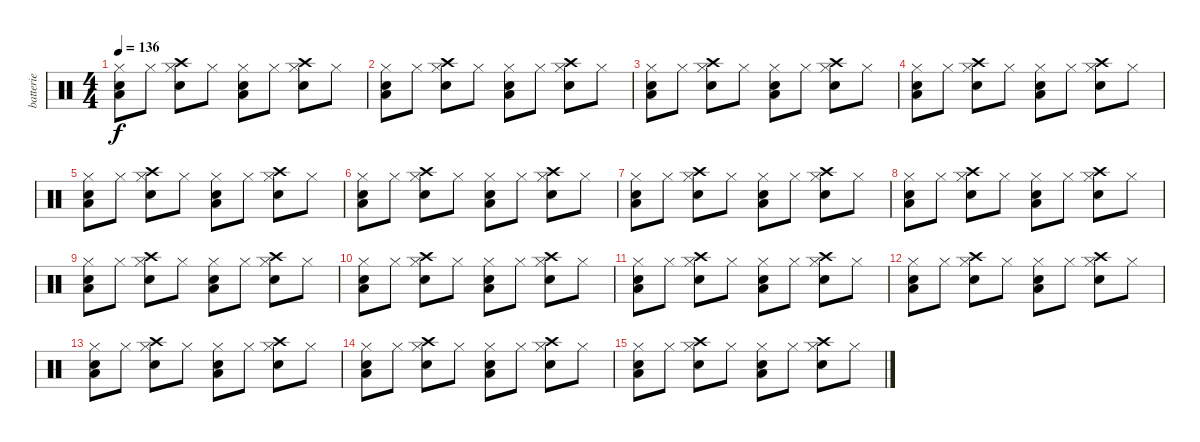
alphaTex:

\track ("batterie" "batterie") {instrument percussion}
\staff {score}
\articulation defaults
\ts (4 4)
\tempo 136
\clef neutral
\ks c
("Hi-Hat (closed)" "Snare (hit) 2" "Low Floor Tom (hit)").8{dy f} "Hi-Hat (closed)".8 ("Hi-Hat (closed)" "Crash high (hit)" "Electric Snare (hit)").8 "Hi-Hat (closed)".8 ("Hi-Hat (closed)" "Snare (hit) 2" "Low Floor Tom (hit)").8 "Hi-Hat (closed)".8 ("Hi-Hat (closed)" "Crash high (hit)" "Electric Snare (hit)").8 "Hi-Hat (closed)".8 |
("Hi-Hat (closed)" "Snare (hit) 2" "Low Floor Tom (hit)").8 "Hi-Hat (closed)".8 ("Hi-Hat (closed)" "Crash high (hit)" "Electric Snare (hit)").8 "Hi-Hat (closed)".8 ("Hi-Hat (closed)" "Snare (hit) 2" "Low Floor Tom (hit)").8 "Hi-Hat (closed)".8 ("Hi-Hat (closed)" "Crash high (hit)" "Electric Snare (hit)").8 "Hi-Hat (closed)".8 |
("Hi-Hat (closed)" "Snare (hit) 2" "Low Floor Tom (hit)").8 "Hi-Hat (closed)".8 ("Hi-Hat (closed)" "Crash high (hit)" "Electric Snare (hit)").8 "Hi-Hat (closed)".8 ("Hi-Hat (closed)" "Snare (hit) 2" "Low Floor Tom (hit)").8 "Hi-Hat (closed)".8 ("Hi-Hat (closed)" "Crash high (hit)" "Electric Snare (hit)").8 "Hi-Hat (closed)".8 |
("Hi-Hat (closed)" "Snare (hit) 2" "Low Floor Tom (hit)").8 "Hi-Hat (closed)".8 ("Hi-Hat (closed)" "Crash high (hit)" "Electric Snare (hit)").8 "Hi-Hat (closed)".8 ("Hi-Hat (closed)" "Snare (hit) 2" "Low Floor Tom (hit)").8 "Hi-Hat (closed)".8 ("Hi-Hat (closed)" "Crash high (hit)" "Electric Snare (hit)").8 "Hi-Hat (closed)".8 |
("Hi-Hat (closed)" "Snare (hit) 2" "Low Floor Tom (hit)").8 "Hi-Hat (closed)".8 ("Hi-Hat (closed)" "Crash high (hit)" "Electric Snare (hit)").8 "Hi-Hat (closed)".8 ("Hi-Hat (closed)" "Snare (hit) 2" "Low Floor Tom (hit)").8 "Hi-Hat (closed)".8 ("Hi-Hat (closed)" "Crash high (hit)" "Electric Snare (hit)").8 "Hi-Hat (closed)".8 |
("Hi-Hat (closed)" "Snare (hit) 2" "Low Floor Tom (hit)").8 "Hi-Hat (closed)".8 ("Hi-Hat (closed)" "Crash high (hit)" "Electric Snare (hit)").8 "Hi-Hat (closed)".8 ("Hi-Hat (closed)" "Snare (hit) 2" "Low Floor Tom (hit)").8 "Hi-Hat (closed)".8 ("Hi-Hat (closed)" "Crash high (hit)" "Electric Snare (hit)").8 "Hi-Hat (closed)".8 |
("Hi-Hat (closed)" "Snare (hit) 2" "Low Floor Tom (hit)").8 "Hi-Hat (closed)".8 ("Hi-Hat (closed)" "Crash high (hit)" "Electric Snare (hit)").8 "Hi-Hat (closed)".8 ("Hi-Hat (closed)" "Snare (hit) 2" "Low Floor Tom (hit)").8 "Hi-Hat (closed)".8 ("Hi-Hat (closed)" "Crash high (hit)" "Electric Snare (hit)").8 "Hi-Hat (closed)".8 |
("Hi-Hat (closed)" "Snare (hit) 2" "Low Floor Tom (hit)").8 "Hi-Hat (closed)".8 ("Hi-Hat (closed)" "Crash high (hit)" "Electric Snare (hit)").8 "Hi-Hat (closed)".8 ("Hi-Hat (closed)" "Snare (hit) 2" "Low Floor Tom (hit)").8 "Hi-Hat (closed)".8 ("Hi-Hat (closed)" "Crash high (hit)" "Electric Snare (hit)").8 "Hi-Hat (closed)".8 |
("Hi-Hat (closed)" "Snare (hit) 2" "Low Floor Tom (hit)").8 "Hi-Hat (closed)".8 ("Hi-Hat (closed)" "Crash high (hit)" "Electric Snare (hit)").8 "Hi-Hat (closed)".8 ("Hi-Hat (closed)" "Snare (hit) 2" "Low Floor Tom (hit)").8 "Hi-Hat (closed)".8 ("Hi-Hat (closed)" "Crash high (hit)" "Electric Snare (hit)").8 "Hi-Hat (closed)".8 |
("Hi-Hat (closed)" "Snare (hit) 2" "Low Floor Tom (hit)").8 "Hi-Hat (closed)".8 ("Hi-Hat (closed)" "Crash high (hit)" "Electric Snare (hit)").8 "Hi-Hat (closed)".8 ("Hi-Hat (closed)" "Snare (hit) 2" "Low Floor Tom (hit)").8 "Hi-Hat (closed)".8 ("Hi-Hat (closed)" "Crash high (hit)" "Electric Snare (hit)").8 "Hi-Hat (closed)".8 |
("Hi-Hat (closed)" "Snare (hit) 2" "Low Floor Tom (hit)").8 "Hi-Hat (closed)".8 ("Hi-Hat (closed)" "Crash high (hit)" "Electric Snare (hit)").8 "Hi-Hat (closed)".8 ("Hi-Hat (closed)" "Snare (hit) 2" "Low Floor Tom (hit)").8 "Hi-Hat (closed)".8 ("Hi-Hat (closed)" "Crash high (hit)" "Electric Snare (hit)").8 "Hi-Hat (closed)".8 |
("Hi-Hat (closed)" "Snare (hit) 2" "Low Floor Tom (hit)").8 "Hi-Hat (closed)".8 ("Hi-Hat (closed)" "Crash high (hit)" "Electric Snare (hit)").8 "Hi-Hat (closed)".8 ("Hi-Hat (closed)" "Snare (hit) 2" "Low Floor Tom (hit)").8 "Hi-Hat (closed)".8 ("Hi-Hat (closed)" "Crash high (hit)" "Electric Snare (hit)").8 "Hi-Hat (closed)".8 |
("Hi-Hat (closed)" "Snare (hit) 2" "Low Floor Tom (hit)").8 "Hi-Hat (closed)".8 ("Hi-Hat (closed)" "Crash high (hit)" "Electric Snare (hit)").8 "Hi-Hat (closed)".8 ("Hi-Hat (closed)" "Snare (hit) 2" "Low Floor Tom (hit)").8 "Hi-Hat (closed)".8 ("Hi-Hat (closed)" "Crash high (hit)" "Electric Snare (hit)").8 "Hi-Hat (closed)".8 |
("Hi-Hat (closed)" "Snare (hit) 2" "Low Floor Tom (hit)").8 "Hi-Hat (closed)".8 ("Hi-Hat (closed)" "Crash high (hit)" "Electric Snare (hit)").8 "Hi-Hat (closed)".8 ("Hi-Hat (closed)" "Snare (hit) 2" "Low Floor Tom (hit)").8 "Hi-Hat (closed)".8 ("Hi-Hat (closed)" "Crash high (hit)" "Electric Snare (hit)").8 "Hi-Hat (closed)".8 |
("Hi-Hat (closed)" "Snare (hit) 2" "Low Floor Tom (hit)").8 "Hi-Hat (closed)".8 ("Hi-Hat (closed)" "Crash high (hit)" "Electric Snare (hit)").8 "Hi-Hat (closed)".8 ("Hi-Hat (closed)" "Snare (hit) 2" "Low Floor Tom (hit)").8 "Hi-Hat (closed)".8 ("Hi-Hat (closed)" "Crash high (hit)" "Electric Snare (hit)").8 "Hi-Hat (closed)".8
